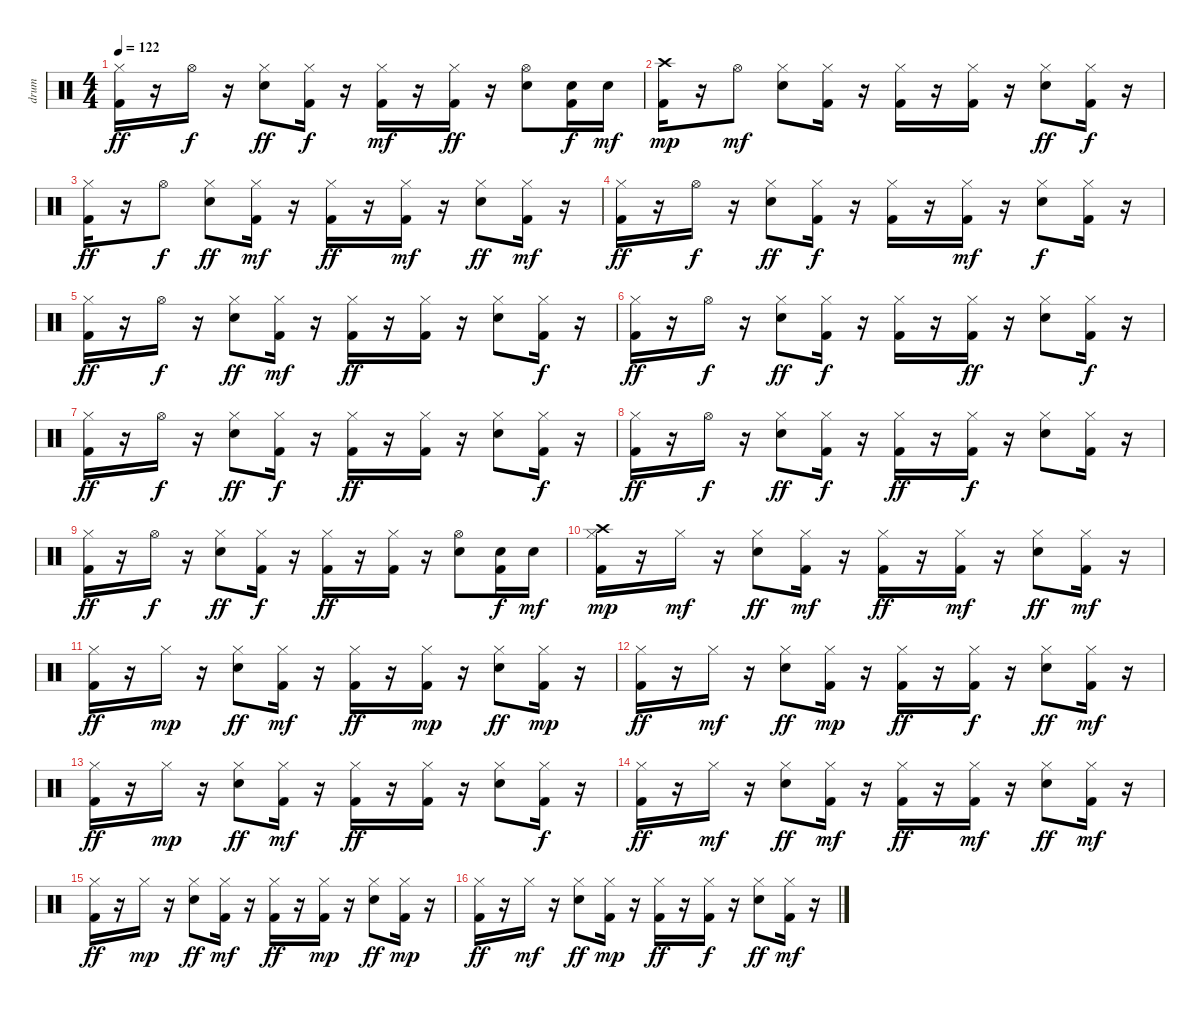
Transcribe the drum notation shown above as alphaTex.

\track ("drum" "drum") {instrument percussion}
\staff {score}
\articulation defaults
\ts (4 4)
\tempo 122
\clef neutral
\ks c
("Kick (hit) 2" "Hi-Hat (closed)").16{dy ff} r.16 "Hi-Hat (open)".16{dy f} r.16 ("Electric Snare (hit)" "Hi-Hat (closed)").8{dy ff} ("Kick (hit) 2" "Hi-Hat (closed)").16{dy f} r.16 ("Kick (hit) 2" "Hi-Hat (closed)").16{dy mf} r.16 ("Kick (hit) 2" "Hi-Hat (closed)").16{dy ff} r.16 ("Electric Snare (hit)" "Hi-Hat (open)").8 ("Electric Snare (hit)" "Kick (hit) 2").16{dy f} "Electric Snare (hit)".16{dy mf} |
("Kick (hit) 2" "Crash high (hit)").16{dy mp} r.16 "Hi-Hat (open)".8{dy mf} ("Electric Snare (hit)" "Hi-Hat (closed)").8 ("Kick (hit) 2" "Hi-Hat (closed)").16 r.16 ("Kick (hit) 2" "Hi-Hat (closed)").16 r.16 ("Kick (hit) 2" "Hi-Hat (closed)").16 r.16 ("Electric Snare (hit)" "Hi-Hat (closed)").8{dy ff} ("Kick (hit) 2" "Hi-Hat (closed)").16{dy f} r.16 |
("Kick (hit) 2" "Hi-Hat (closed)").16{dy ff} r.16 "Hi-Hat (open)".8{dy f} ("Electric Snare (hit)" "Hi-Hat (closed)").8{dy ff} ("Kick (hit) 2" "Hi-Hat (closed)").16{dy mf} r.16 ("Kick (hit) 2" "Hi-Hat (closed)").16{dy ff} r.16 ("Kick (hit) 2" "Hi-Hat (closed)").16{dy mf} r.16 ("Electric Snare (hit)" "Hi-Hat (closed)").8{dy ff} ("Kick (hit) 2" "Hi-Hat (closed)").16{dy mf} r.16 |
("Kick (hit) 2" "Hi-Hat (closed)").16{dy ff} r.16 "Hi-Hat (open)".16{dy f} r.16 ("Electric Snare (hit)" "Hi-Hat (closed)").8{dy ff} ("Kick (hit) 2" "Hi-Hat (closed)").16{dy f} r.16 ("Kick (hit) 2" "Hi-Hat (closed)").16 r.16 ("Kick (hit) 2" "Hi-Hat (closed)").16{dy mf} r.16 ("Electric Snare (hit)" "Hi-Hat (closed)").8{dy f} ("Kick (hit) 2" "Hi-Hat (closed)").16 r.16 |
("Kick (hit) 2" "Hi-Hat (closed)").16{dy ff} r.16 "Hi-Hat (open)".16{dy f} r.16 ("Electric Snare (hit)" "Hi-Hat (closed)").8{dy ff} ("Kick (hit) 2" "Hi-Hat (closed)").16{dy mf} r.16 ("Kick (hit) 2" "Hi-Hat (closed)").16{dy ff} r.16 ("Kick (hit) 2" "Hi-Hat (closed)").16 r.16 ("Electric Snare (hit)" "Hi-Hat (closed)").8 ("Kick (hit) 2" "Hi-Hat (closed)").16{dy f} r.16 |
("Kick (hit) 2" "Hi-Hat (closed)").16{dy ff} r.16 "Hi-Hat (open)".16{dy f} r.16 ("Electric Snare (hit)" "Hi-Hat (closed)").8{dy ff} ("Kick (hit) 2" "Hi-Hat (closed)").16{dy f} r.16 ("Kick (hit) 2" "Hi-Hat (closed)").16 r.16 ("Kick (hit) 2" "Hi-Hat (closed)").16{dy ff} r.16 ("Electric Snare (hit)" "Hi-Hat (closed)").8 ("Kick (hit) 2" "Hi-Hat (closed)").16{dy f} r.16 |
("Kick (hit) 2" "Hi-Hat (closed)").16{dy ff} r.16 "Hi-Hat (open)".16{dy f} r.16 ("Electric Snare (hit)" "Hi-Hat (closed)").8{dy ff} ("Kick (hit) 2" "Hi-Hat (closed)").16{dy f} r.16 ("Kick (hit) 2" "Hi-Hat (closed)").16{dy ff} r.16 ("Kick (hit) 2" "Hi-Hat (closed)").16 r.16 ("Electric Snare (hit)" "Hi-Hat (closed)").8 ("Kick (hit) 2" "Hi-Hat (closed)").16{dy f} r.16 |
("Kick (hit) 2" "Hi-Hat (closed)").16{dy ff} r.16 "Hi-Hat (open)".16{dy f} r.16 ("Electric Snare (hit)" "Hi-Hat (closed)").8{dy ff} ("Kick (hit) 2" "Hi-Hat (closed)").16{dy f} r.16 ("Kick (hit) 2" "Hi-Hat (closed)").16{dy ff} r.16 ("Kick (hit) 2" "Hi-Hat (closed)").16{dy f} r.16 ("Electric Snare (hit)" "Hi-Hat (closed)").8 ("Kick (hit) 2" "Hi-Hat (closed)").16 r.16 |
("Kick (hit) 2" "Hi-Hat (closed)").16{dy ff} r.16 "Hi-Hat (open)".16{dy f} r.16 ("Electric Snare (hit)" "Hi-Hat (closed)").8{dy ff} ("Kick (hit) 2" "Hi-Hat (closed)").16{dy f} r.16 ("Kick (hit) 2" "Hi-Hat (closed)").16{dy ff} r.16 ("Kick (hit) 2" "Hi-Hat (closed)").16 r.16 ("Electric Snare (hit)" "Hi-Hat (open)").8 ("Electric Snare (hit)" "Kick (hit) 2").16{dy f} "Electric Snare (hit)".16{dy mf} |
("Kick (hit) 2" "Hi-Hat (closed)" "Crash high (hit)").16{dy mp} r.16 "Hi-Hat (closed)".16{dy mf} r.16 ("Electric Snare (hit)" "Hi-Hat (closed)").8{dy ff} ("Kick (hit) 2" "Hi-Hat (closed)").16{dy mf} r.16 ("Kick (hit) 2" "Hi-Hat (closed)").16{dy ff} r.16 ("Kick (hit) 2" "Hi-Hat (closed)").16{dy mf} r.16 ("Electric Snare (hit)" "Hi-Hat (closed)").8{dy ff} ("Kick (hit) 2" "Hi-Hat (closed)").16{dy mf} r.16 |
("Kick (hit) 2" "Hi-Hat (closed)").16{dy ff} r.16 "Hi-Hat (closed)".16{dy mp} r.16 ("Electric Snare (hit)" "Hi-Hat (closed)").8{dy ff} ("Kick (hit) 2" "Hi-Hat (closed)").16{dy mf} r.16 ("Kick (hit) 2" "Hi-Hat (closed)").16{dy ff} r.16 ("Kick (hit) 2" "Hi-Hat (closed)").16{dy mp} r.16 ("Electric Snare (hit)" "Hi-Hat (closed)").8{dy ff} ("Kick (hit) 2" "Hi-Hat (closed)").16{dy mp} r.16 |
("Kick (hit) 2" "Hi-Hat (closed)").16{dy ff} r.16 "Hi-Hat (closed)".16{dy mf} r.16 ("Electric Snare (hit)" "Hi-Hat (closed)").8{dy ff} ("Kick (hit) 2" "Hi-Hat (closed)").16{dy mp} r.16 ("Kick (hit) 2" "Hi-Hat (closed)").16{dy ff} r.16 ("Kick (hit) 2" "Hi-Hat (closed)").16{dy f} r.16 ("Electric Snare (hit)" "Hi-Hat (closed)").8{dy ff} ("Kick (hit) 2" "Hi-Hat (closed)").16{dy mf} r.16 |
("Kick (hit) 2" "Hi-Hat (closed)").16{dy ff} r.16 "Hi-Hat (closed)".16{dy mp} r.16 ("Electric Snare (hit)" "Hi-Hat (closed)").8{dy ff} ("Kick (hit) 2" "Hi-Hat (closed)").16{dy mf} r.16 ("Kick (hit) 2" "Hi-Hat (closed)").16{dy ff} r.16 ("Kick (hit) 2" "Hi-Hat (closed)").16 r.16 ("Electric Snare (hit)" "Hi-Hat (closed)").8 ("Kick (hit) 2" "Hi-Hat (closed)").16{dy f} r.16 |
("Kick (hit) 2" "Hi-Hat (closed)").16{dy ff} r.16 "Hi-Hat (closed)".16{dy mf} r.16 ("Electric Snare (hit)" "Hi-Hat (closed)").8{dy ff} ("Kick (hit) 2" "Hi-Hat (closed)").16{dy mf} r.16 ("Kick (hit) 2" "Hi-Hat (closed)").16{dy ff} r.16 ("Kick (hit) 2" "Hi-Hat (closed)").16{dy mf} r.16 ("Electric Snare (hit)" "Hi-Hat (closed)").8{dy ff} ("Kick (hit) 2" "Hi-Hat (closed)").16{dy mf} r.16 |
("Kick (hit) 2" "Hi-Hat (closed)").16{dy ff} r.16 "Hi-Hat (closed)".16{dy mp} r.16 ("Electric Snare (hit)" "Hi-Hat (closed)").8{dy ff} ("Kick (hit) 2" "Hi-Hat (closed)").16{dy mf} r.16 ("Kick (hit) 2" "Hi-Hat (closed)").16{dy ff} r.16 ("Kick (hit) 2" "Hi-Hat (closed)").16{dy mp} r.16 ("Electric Snare (hit)" "Hi-Hat (closed)").8{dy ff} ("Kick (hit) 2" "Hi-Hat (closed)").16{dy mp} r.16 |
("Kick (hit) 2" "Hi-Hat (closed)").16{dy ff} r.16 "Hi-Hat (closed)".16{dy mf} r.16 ("Electric Snare (hit)" "Hi-Hat (closed)").8{dy ff} ("Kick (hit) 2" "Hi-Hat (closed)").16{dy mp} r.16 ("Kick (hit) 2" "Hi-Hat (closed)").16{dy ff} r.16 ("Kick (hit) 2" "Hi-Hat (closed)").16{dy f} r.16 ("Electric Snare (hit)" "Hi-Hat (closed)").8{dy ff} ("Kick (hit) 2" "Hi-Hat (closed)").16{dy mf} r.16
